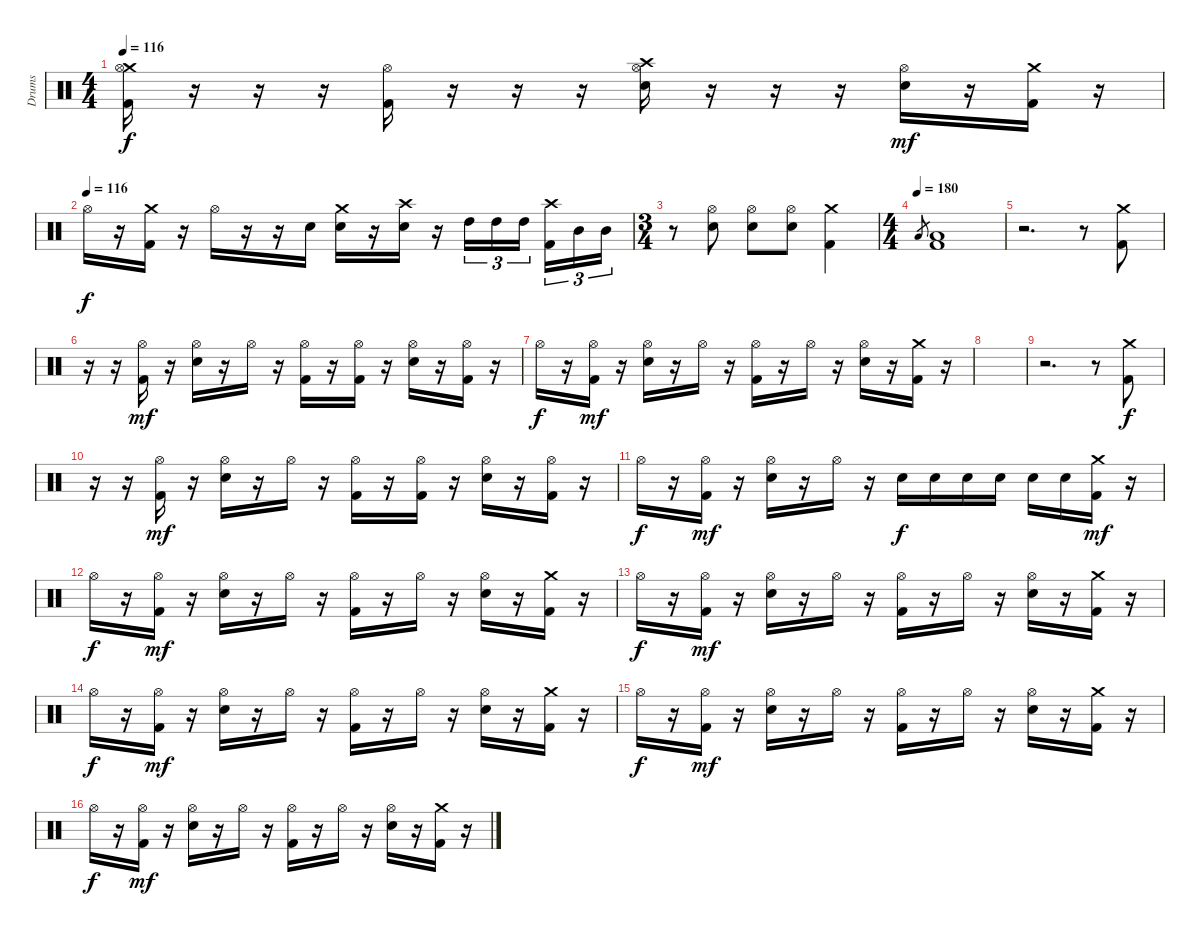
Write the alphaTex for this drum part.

\track ("Drums" "Drums") {instrument percussion}
\staff {score}
\articulation defaults
\ts (4 4)
\tempo 116
\clef neutral
\ks c
("Crash medium (hit)" "Hi-Hat (open)" "Kick (hit) 2").16{dy f} r.16 r.16 r.16 ("Hi-Hat (open)" "Kick (hit) 2").16 r.16 r.16 r.16 ("Crash high (hit)" "Hi-Hat (open)" "Electric Snare (hit)").16 r.16 r.16 r.16 ("Hi-Hat (open)" "Electric Snare (hit)").16{dy mf} r.16 ("Crash medium (hit)" "Kick (hit) 2").16 r.16 |
\tempo (116)
"Hi-Hat (open)".16{dy f} r.16 ("Crash medium (hit)" "Kick (hit) 2").16 r.16 "Hi-Hat (open)".16 r.16 r.16 "Electric Snare (hit)".16 ("Crash medium (hit)" "Electric Snare (hit)").16 r.16 ("Crash high (hit)" "Electric Snare (hit)").16 r.16 "High Tom (hit)".16{tu (3 2)} "High Tom (hit)".16{tu (3 2)} "High Tom (hit)".16{tu (3 2)} ("Crash high (hit)" "Kick (hit) 2").16{tu (3 2)} "Mid Tom (hit)".16{tu (3 2)} "Mid Tom (hit)".16{tu (3 2)} |
\ts (3 4)
r.8 ("Hi-Hat (open)" "Electric Snare (hit)").8 ("Hi-Hat (open)" "Electric Snare (hit)").8 ("Hi-Hat (open)" "Electric Snare (hit)").8 ("Crash medium (hit)" "Kick (hit) 2").4 |
\ts (4 4)
\tempo (180)
"Low Floor Tom (hit)".8{gr} ("Low Floor Tom (hit)" "Kick (hit) 2").1 |
r.2{d} r.8 ("Crash medium (hit)" "Kick (hit) 2").8 |
r.16 r.16 ("Hi-Hat (open)" "Kick (hit) 2").16{dy mf} r.16 ("Hi-Hat (open)" "Electric Snare (hit)").16 r.16 "Hi-Hat (open)".16 r.16 ("Hi-Hat (open)" "Kick (hit) 2").16 r.16 ("Hi-Hat (open)" "Kick (hit) 2").16 r.16 ("Hi-Hat (open)" "Electric Snare (hit)").16 r.16 ("Hi-Hat (open)" "Kick (hit) 2").16 r.16 |
"Hi-Hat (open)".16{dy f} r.16 ("Hi-Hat (open)" "Kick (hit) 2").16{dy mf} r.16 ("Hi-Hat (open)" "Electric Snare (hit)").16 r.16 "Hi-Hat (open)".16 r.16 ("Hi-Hat (open)" "Kick (hit) 2").16 r.16 "Hi-Hat (open)".16 r.16 ("Hi-Hat (open)" "Electric Snare (hit)").16 r.16 ("Crash medium (hit)" "Kick (hit) 2").16 r.16 |
|
r.2{d} r.8 ("Crash medium (hit)" "Kick (hit) 2").8{dy f} |
r.16 r.16 ("Hi-Hat (open)" "Kick (hit) 2").16{dy mf} r.16 ("Hi-Hat (open)" "Electric Snare (hit)").16 r.16 "Hi-Hat (open)".16 r.16 ("Hi-Hat (open)" "Kick (hit) 2").16 r.16 ("Hi-Hat (open)" "Kick (hit) 2").16 r.16 ("Hi-Hat (open)" "Electric Snare (hit)").16 r.16 ("Hi-Hat (open)" "Kick (hit) 2").16 r.16 |
"Hi-Hat (open)".16{dy f} r.16 ("Hi-Hat (open)" "Kick (hit) 2").16{dy mf} r.16 ("Hi-Hat (open)" "Electric Snare (hit)").16 r.16 "Hi-Hat (open)".16 r.16 "Electric Snare (hit)".16{dy f} "Electric Snare (hit)".16 "Electric Snare (hit)".16 "Electric Snare (hit)".16 "Electric Snare (hit)".16 "Electric Snare (hit)".16 ("Crash medium (hit)" "Kick (hit) 2").16{dy mf} r.16 |
"Hi-Hat (open)".16{dy f} r.16 ("Hi-Hat (open)" "Kick (hit) 2").16{dy mf} r.16 ("Hi-Hat (open)" "Electric Snare (hit)").16 r.16 "Hi-Hat (open)".16 r.16 ("Hi-Hat (open)" "Kick (hit) 2").16 r.16 "Hi-Hat (open)".16 r.16 ("Hi-Hat (open)" "Electric Snare (hit)").16 r.16 ("Crash medium (hit)" "Kick (hit) 2").16 r.16 |
"Hi-Hat (open)".16{dy f} r.16 ("Hi-Hat (open)" "Kick (hit) 2").16{dy mf} r.16 ("Hi-Hat (open)" "Electric Snare (hit)").16 r.16 "Hi-Hat (open)".16 r.16 ("Hi-Hat (open)" "Kick (hit) 2").16 r.16 "Hi-Hat (open)".16 r.16 ("Hi-Hat (open)" "Electric Snare (hit)").16 r.16 ("Crash medium (hit)" "Kick (hit) 2").16 r.16 |
"Hi-Hat (open)".16{dy f} r.16 ("Hi-Hat (open)" "Kick (hit) 2").16{dy mf} r.16 ("Hi-Hat (open)" "Electric Snare (hit)").16 r.16 "Hi-Hat (open)".16 r.16 ("Hi-Hat (open)" "Kick (hit) 2").16 r.16 "Hi-Hat (open)".16 r.16 ("Hi-Hat (open)" "Electric Snare (hit)").16 r.16 ("Crash medium (hit)" "Kick (hit) 2").16 r.16 |
"Hi-Hat (open)".16{dy f} r.16 ("Hi-Hat (open)" "Kick (hit) 2").16{dy mf} r.16 ("Hi-Hat (open)" "Electric Snare (hit)").16 r.16 "Hi-Hat (open)".16 r.16 ("Hi-Hat (open)" "Kick (hit) 2").16 r.16 "Hi-Hat (open)".16 r.16 ("Hi-Hat (open)" "Electric Snare (hit)").16 r.16 ("Crash medium (hit)" "Kick (hit) 2").16 r.16 |
"Hi-Hat (open)".16{dy f} r.16 ("Hi-Hat (open)" "Kick (hit) 2").16{dy mf} r.16 ("Hi-Hat (open)" "Electric Snare (hit)").16 r.16 "Hi-Hat (open)".16 r.16 ("Hi-Hat (open)" "Kick (hit) 2").16 r.16 "Hi-Hat (open)".16 r.16 ("Hi-Hat (open)" "Electric Snare (hit)").16 r.16 ("Crash medium (hit)" "Kick (hit) 2").16 r.16
